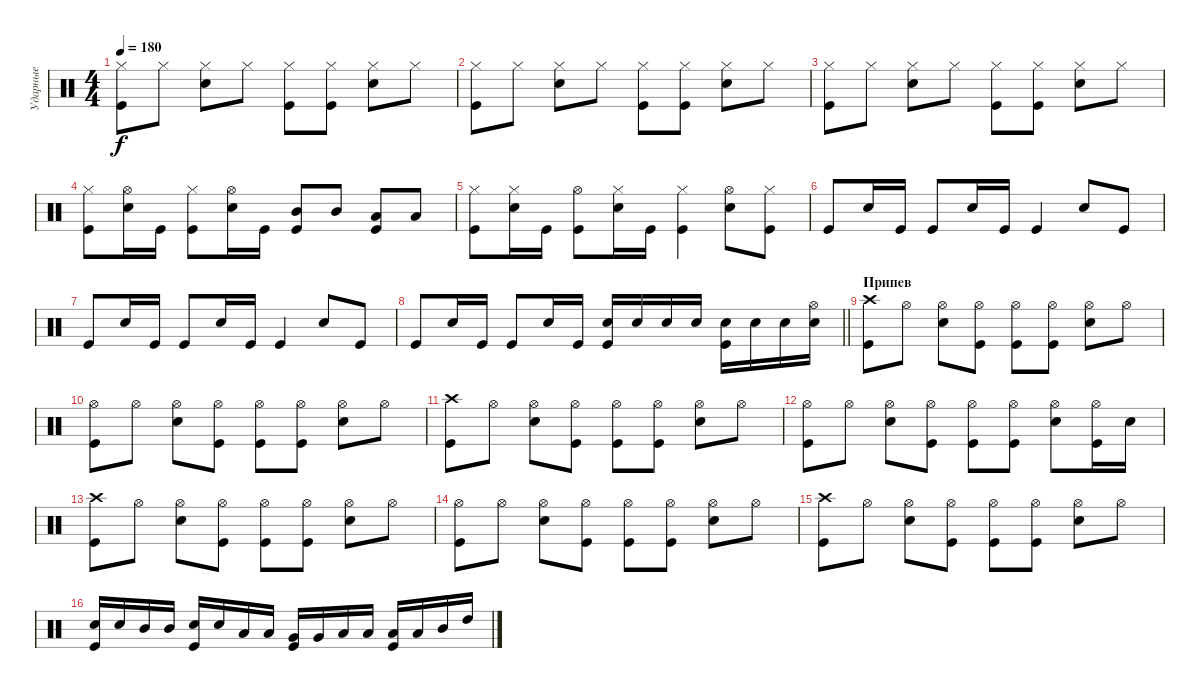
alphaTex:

\track ("Ударные" "Ударные") {instrument percussion}
\staff {score}
\articulation defaults
\ts (4 4)
\tempo 180
\clef neutral
\ks c
("Hi-Hat (closed)" "Kick (hit)").8{dy f} "Hi-Hat (closed)".8 ("Hi-Hat (closed)" "Snare (hit) 2").8 "Hi-Hat (closed)".8 ("Hi-Hat (closed)" "Kick (hit)").8 ("Hi-Hat (closed)" "Kick (hit)").8 ("Hi-Hat (closed)" "Snare (hit) 2").8 "Hi-Hat (closed)".8 |
("Hi-Hat (closed)" "Kick (hit)").8 "Hi-Hat (closed)".8 ("Hi-Hat (closed)" "Snare (hit) 2").8 "Hi-Hat (closed)".8 ("Hi-Hat (closed)" "Kick (hit)").8 ("Hi-Hat (closed)" "Kick (hit)").8 ("Hi-Hat (closed)" "Snare (hit) 2").8 "Hi-Hat (closed)".8 |
("Hi-Hat (closed)" "Kick (hit)").8 "Hi-Hat (closed)".8 ("Hi-Hat (closed)" "Snare (hit) 2").8 "Hi-Hat (closed)".8 ("Hi-Hat (closed)" "Kick (hit)").8 ("Hi-Hat (closed)" "Kick (hit)").8 ("Hi-Hat (closed)" "Snare (hit) 2").8 "Hi-Hat (closed)".8 |
("Kick (hit)" "Hi-Hat (closed)").8 ("Snare (hit) 2" "Hi-Hat (open)").16 "Kick (hit)".16 ("Hi-Hat (closed)" "Kick (hit)").8 ("Snare (hit) 2" "Hi-Hat (open)").16 "Kick (hit)".16 ("Mid Tom (hit)" "Kick (hit)").8 "Mid Tom (hit)".8 ("Low Tom (hit)" "Kick (hit)").8 "Low Tom (hit)".8 |
("Hi-Hat (closed)" "Kick (hit)").8 ("Snare (hit) 2" "Hi-Hat (closed)").16 "Kick (hit)".16 ("Kick (hit)" "Hi-Hat (open)").8 ("Snare (hit) 2" "Hi-Hat (closed)").16 "Kick (hit)".16 ("Kick (hit)" "Hi-Hat (closed)").4 ("Snare (hit) 2" "Hi-Hat (open)").8 ("Kick (hit)" "Hi-Hat (closed)").8 |
"Kick (hit)".8 "Snare (hit) 2".16 "Kick (hit)".16 "Kick (hit)".8 "Snare (hit) 2".16 "Kick (hit)".16 "Kick (hit)".4 "Snare (hit) 2".8 "Kick (hit)".8 |
"Kick (hit)".8 "Snare (hit) 2".16 "Kick (hit)".16 "Kick (hit)".8 "Snare (hit) 2".16 "Kick (hit)".16 "Kick (hit)".4 "Snare (hit) 2".8 "Kick (hit)".8 |
\barLineRight lightlight "Kick (hit)".8 "Snare (hit) 2".16 "Kick (hit)".16 "Kick (hit)".8 "Snare (hit) 2".16 "Kick (hit)".16
("Snare (hit) 2" "Kick (hit)").16 "Snare (hit) 2".16 "Snare (hit) 2".16 "Snare (hit) 2".16 ("Snare (hit) 2" "Kick (hit)").16 "Snare (hit) 2".16 "Snare (hit) 2".16 ("Snare (hit) 2" "Hi-Hat (open)").16 |
\section ("" "Припев")
("Crash high (hit)" "Kick (hit)").8 "Hi-Hat (open)".8 ("Hi-Hat (open)" "Snare (hit) 2").8 ("Hi-Hat (open)" "Kick (hit)").8 ("Hi-Hat (open)" "Kick (hit)").8 ("Hi-Hat (open)" "Kick (hit)").8 ("Hi-Hat (open)" "Snare (hit) 2").8 "Hi-Hat (open)".8 |
("Hi-Hat (open)" "Kick (hit)").8 "Hi-Hat (open)".8 ("Hi-Hat (open)" "Snare (hit) 2").8 ("Hi-Hat (open)" "Kick (hit)").8 ("Hi-Hat (open)" "Kick (hit)").8 ("Hi-Hat (open)" "Kick (hit)").8 ("Hi-Hat (open)" "Snare (hit) 2").8 "Hi-Hat (open)".8 |
("Crash high (hit)" "Kick (hit)").8 "Hi-Hat (open)".8 ("Hi-Hat (open)" "Snare (hit) 2").8 ("Hi-Hat (open)" "Kick (hit)").8 ("Hi-Hat (open)" "Kick (hit)").8 ("Hi-Hat (open)" "Kick (hit)").8 ("Hi-Hat (open)" "Snare (hit) 2").8 "Hi-Hat (open)".8 |
("Hi-Hat (open)" "Kick (hit)").8 "Hi-Hat (open)".8 ("Hi-Hat (open)" "Snare (hit) 2").8 ("Hi-Hat (open)" "Kick (hit)").8 ("Hi-Hat (open)" "Kick (hit)").8 ("Hi-Hat (open)" "Kick (hit)").8 ("Hi-Hat (open)" "Snare (hit) 2").8 ("Hi-Hat (open)" "Kick (hit)").16 "Snare (hit) 2".16 |
("Crash high (hit)" "Kick (hit)").8 "Hi-Hat (open)".8 ("Hi-Hat (open)" "Snare (hit) 2").8 ("Hi-Hat (open)" "Kick (hit)").8 ("Hi-Hat (open)" "Kick (hit)").8 ("Hi-Hat (open)" "Kick (hit)").8 ("Hi-Hat (open)" "Snare (hit) 2").8 "Hi-Hat (open)".8 |
("Hi-Hat (open)" "Kick (hit)").8 "Hi-Hat (open)".8 ("Hi-Hat (open)" "Snare (hit) 2").8 ("Hi-Hat (open)" "Kick (hit)").8 ("Hi-Hat (open)" "Kick (hit)").8 ("Hi-Hat (open)" "Kick (hit)").8 ("Hi-Hat (open)" "Snare (hit) 2").8 "Hi-Hat (open)".8 |
("Crash high (hit)" "Kick (hit)").8 "Hi-Hat (open)".8 ("Hi-Hat (open)" "Snare (hit) 2").8 ("Hi-Hat (open)" "Kick (hit)").8 ("Hi-Hat (open)" "Kick (hit)").8 ("Hi-Hat (open)" "Kick (hit)").8 ("Hi-Hat (open)" "Snare (hit) 2").8 "Hi-Hat (open)".8 |
("Snare (hit) 2" "Kick (hit)").16 "Snare (hit) 2".16 "Mid Tom (hit)".16 "Mid Tom (hit)".16 ("Snare (hit) 2" "Kick (hit)").16 "Snare (hit) 2".16 "Low Tom (hit)".16 "Low Tom (hit)".16 ("Very Low Tom (hit)" "Kick (hit)").16 "Very Low Tom (hit)".16 "Low Tom (hit)".16 "Low Tom (hit)".16 ("Low Floor Tom (hit)" "Kick (hit)").16 "Low Floor Tom (hit)".16 "Mid Tom (hit)".16 "High Tom (hit)".16
